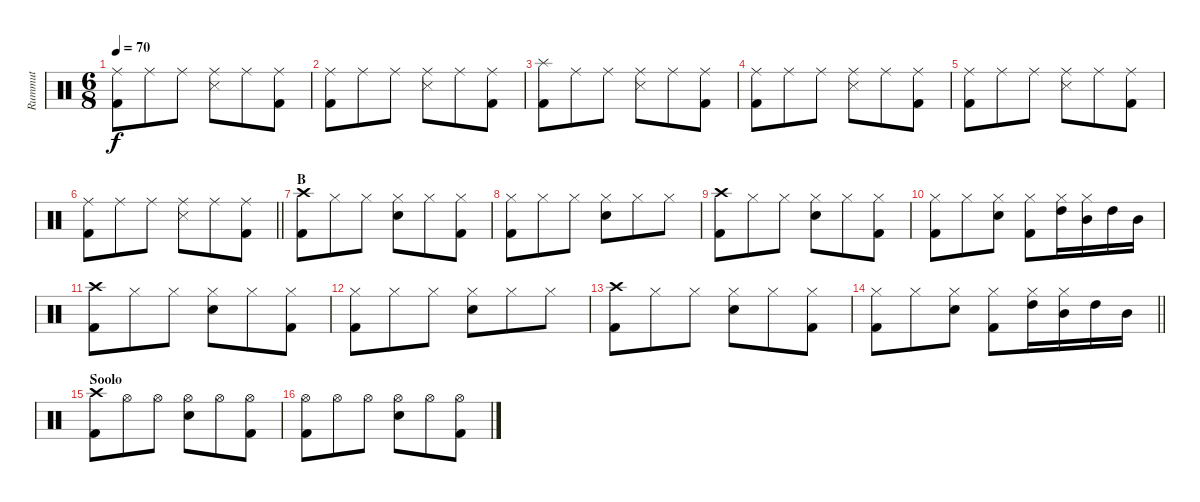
\track ("Rummut" "Rummut") {instrument percussion}
\staff {score}
\articulation defaults
\ts (6 8)
\tempo 70
\clef neutral
\ks c
("Ride (middle)" "Kick (hit) 2").8{dy f} "Ride (middle)".8 "Ride (middle)".8 ("Ride (middle)" "Snare (side stick) 3").8 "Ride (middle)".8 ("Ride (middle)" "Kick (hit) 2").8 |
("Ride (middle)" "Kick (hit) 2").8 "Ride (middle)".8 "Ride (middle)".8 ("Ride (middle)" "Snare (side stick) 3").8 "Ride (middle)".8 ("Ride (middle)" "Kick (hit) 2").8 |
("Splash (hit)" "Kick (hit) 2").8 "Ride (middle)".8 "Ride (middle)".8 ("Ride (middle)" "Snare (side stick) 3").8 "Ride (middle)".8 ("Ride (middle)" "Kick (hit) 2").8 |
("Ride (middle)" "Kick (hit) 2").8 "Ride (middle)".8 "Ride (middle)".8 ("Ride (middle)" "Snare (side stick) 3").8 "Ride (middle)".8 ("Ride (middle)" "Kick (hit) 2").8 |
("Ride (middle)" "Kick (hit) 2").8 "Ride (middle)".8 "Ride (middle)".8 ("Ride (middle)" "Snare (side stick) 3").8 "Ride (middle)".8 ("Ride (middle)" "Kick (hit) 2").8 |
\barLineRight lightlight
("Ride (middle)" "Kick (hit) 2").8 "Ride (middle)".8 "Ride (middle)".8 ("Ride (middle)" "Snare (side stick) 3").8 "Ride (middle)".8 ("Ride (middle)" "Kick (hit) 2").8 |
\section ("" "B")
("Crash high (hit)" "Kick (hit) 2").8 "Hi-Hat (closed)".8 "Hi-Hat (closed)".8 ("Hi-Hat (closed)" "Snare (hit) 2").8 "Hi-Hat (closed)".8 ("Hi-Hat (closed)" "Kick (hit) 2").8 |
("Hi-Hat (closed)" "Kick (hit) 2").8 "Hi-Hat (closed)".8 "Hi-Hat (closed)".8 ("Hi-Hat (closed)" "Snare (hit) 2").8 "Hi-Hat (closed)".8 "Hi-Hat (closed)".8 |
("Crash high (hit)" "Kick (hit) 2").8 "Hi-Hat (closed)".8 "Hi-Hat (closed)".8 ("Hi-Hat (closed)" "Snare (hit) 2").8 "Hi-Hat (closed)".8 ("Hi-Hat (closed)" "Kick (hit) 2").8 |
("Hi-Hat (closed)" "Kick (hit) 2").8 "Hi-Hat (closed)".8 ("Hi-Hat (closed)" "Snare (hit) 2").8 ("Hi-Hat (closed)" "Kick (hit) 2").8 ("Hi-Hat (closed)" "High Tom (hit)").16 ("Hi-Hat (closed)" "Mid Tom (hit)").16 "High Tom (hit)".16 "Mid Tom (hit)".16 |
("Crash high (hit)" "Kick (hit) 2").8 "Hi-Hat (closed)".8 "Hi-Hat (closed)".8 ("Hi-Hat (closed)" "Snare (hit) 2").8 "Hi-Hat (closed)".8 ("Hi-Hat (closed)" "Kick (hit) 2").8 |
("Hi-Hat (closed)" "Kick (hit) 2").8 "Hi-Hat (closed)".8 "Hi-Hat (closed)".8 ("Hi-Hat (closed)" "Snare (hit) 2").8 "Hi-Hat (closed)".8 "Hi-Hat (closed)".8 |
("Crash high (hit)" "Kick (hit) 2").8 "Hi-Hat (closed)".8 "Hi-Hat (closed)".8 ("Hi-Hat (closed)" "Snare (hit) 2").8 "Hi-Hat (closed)".8 ("Hi-Hat (closed)" "Kick (hit) 2").8 |
\barLineRight lightlight
("Hi-Hat (closed)" "Kick (hit) 2").8 "Hi-Hat (closed)".8 ("Hi-Hat (closed)" "Snare (hit) 2").8 ("Hi-Hat (closed)" "Kick (hit) 2").8 ("Hi-Hat (closed)" "High Tom (hit)").16 ("Hi-Hat (closed)" "Mid Tom (hit)").16 "High Tom (hit)".16 "Mid Tom (hit)".16 |
\section ("" "Soolo")
("Crash high (hit)" "Kick (hit) 2").8 "Hi-Hat (open)".8 "Hi-Hat (open)".8 ("Hi-Hat (open)" "Snare (hit) 2").8 "Hi-Hat (open)".8 ("Hi-Hat (open)" "Kick (hit) 2").8 |
("Hi-Hat (open)" "Kick (hit) 2").8 "Hi-Hat (open)".8 "Hi-Hat (open)".8 ("Hi-Hat (open)" "Snare (hit) 2").8 "Hi-Hat (open)".8 ("Hi-Hat (open)" "Kick (hit) 2").8
